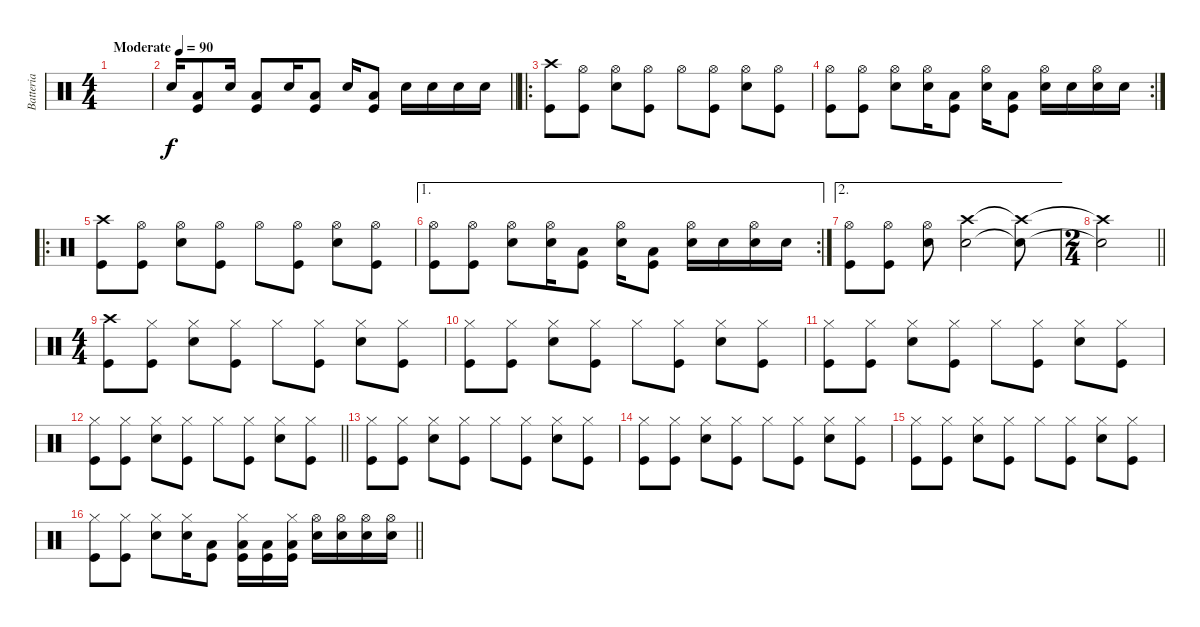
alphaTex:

\track ("Batteria" "Batteria") {instrument percussion}
\staff {score}
\articulation defaults
\ts (4 4)
\tempo (90 "Moderate")
\clef neutral
\ks c
|
\barLineRight lightlight "Snare (hit) 2".16
("Kick (hit)" "Low Floor Tom (hit)").8 "Snare (hit) 2".16 ("Kick (hit)" "Low Floor Tom (hit)").8 "Snare (hit) 2".16 ("Kick (hit)" "Low Floor Tom (hit)").8 "Snare (hit) 2".16 ("Kick (hit)" "Low Floor Tom (hit)").8 "Snare (hit) 2".16 "Snare (hit) 2".16 "Snare (hit) 2".16 "Snare (hit) 2".16 |
\ro
("Kick (hit)" "Crash high (hit)").8 ("Kick (hit)" "Hi-Hat (open)").8 ("Snare (hit) 2" "Hi-Hat (open)").8 ("Kick (hit)" "Hi-Hat (open)").8 "Hi-Hat (open)".8 ("Kick (hit)" "Hi-Hat (open)").8 ("Snare (hit) 2" "Hi-Hat (open)").8 ("Kick (hit)" "Hi-Hat (open)").8 |
\rc 2
("Kick (hit)" "Hi-Hat (open)").8 ("Kick (hit)" "Hi-Hat (open)").8 ("Snare (hit) 2" "Hi-Hat (open)").8 ("Snare (hit) 2" "Hi-Hat (open)").16 ("Kick (hit)" "Low Floor Tom (hit)").8 ("Snare (hit) 2" "Hi-Hat (open)").16 ("Kick (hit)" "Low Floor Tom (hit)").8 ("Snare (hit) 2" "Hi-Hat (open)").16 "Snare (hit) 2".16 ("Snare (hit) 2" "Hi-Hat (open)").16 "Snare (hit) 2".16 |
\ro
("Kick (hit)" "Crash high (hit)").8 ("Kick (hit)" "Hi-Hat (open)").8 ("Snare (hit) 2" "Hi-Hat (open)").8 ("Kick (hit)" "Hi-Hat (open)").8 "Hi-Hat (open)".8 ("Kick (hit)" "Hi-Hat (open)").8 ("Snare (hit) 2" "Hi-Hat (open)").8 ("Kick (hit)" "Hi-Hat (open)").8 |
\ae 1
\rc 2
("Kick (hit)" "Hi-Hat (open)").8 ("Kick (hit)" "Hi-Hat (open)").8 ("Snare (hit) 2" "Hi-Hat (open)").8 ("Snare (hit) 2" "Hi-Hat (open)").16 ("Kick (hit)" "Low Floor Tom (hit)").8 ("Snare (hit) 2" "Hi-Hat (open)").16 ("Kick (hit)" "Low Floor Tom (hit)").8 ("Snare (hit) 2" "Hi-Hat (open)").16 "Snare (hit) 2".16 ("Snare (hit) 2" "Hi-Hat (open)").16 "Snare (hit) 2".16 |
\ae 2
("Kick (hit)" "Hi-Hat (open)").8 ("Kick (hit)" "Hi-Hat (open)").8 ("Snare (hit) 2" "Hi-Hat (open)").8 ("Snare (hit) 2" "Crash high (hit)").2 ("Snare (hit) 2"{t} "Crash high (hit)"{t}).8 |
\ts (2 4)
\barLineRight lightlight
("Snare (hit) 2"{t} "Crash high (hit)"{t}).2 |
\ts (4 4)
("Kick (hit)" "Crash high (hit)").8 ("Kick (hit)" "Hi-Hat (closed)").8 ("Snare (hit) 2" "Hi-Hat (closed)").8 ("Kick (hit)" "Hi-Hat (closed)").8 "Hi-Hat (closed)".8 ("Kick (hit)" "Hi-Hat (closed)").8 ("Snare (hit) 2" "Hi-Hat (closed)").8 ("Kick (hit)" "Hi-Hat (closed)").8 |
("Kick (hit)" "Hi-Hat (closed)").8 ("Kick (hit)" "Hi-Hat (closed)").8 ("Snare (hit) 2" "Hi-Hat (closed)").8 ("Kick (hit)" "Hi-Hat (closed)").8 "Hi-Hat (closed)".8 ("Kick (hit)" "Hi-Hat (closed)").8 ("Snare (hit) 2" "Hi-Hat (closed)").8 ("Kick (hit)" "Hi-Hat (closed)").8 |
("Kick (hit)" "Hi-Hat (closed)").8 ("Kick (hit)" "Hi-Hat (closed)").8 ("Snare (hit) 2" "Hi-Hat (closed)").8 ("Kick (hit)" "Hi-Hat (closed)").8 "Hi-Hat (closed)".8 ("Kick (hit)" "Hi-Hat (closed)").8 ("Snare (hit) 2" "Hi-Hat (closed)").8 ("Kick (hit)" "Hi-Hat (closed)").8 |
\barLineRight lightlight
("Kick (hit)" "Hi-Hat (closed)").8 ("Kick (hit)" "Hi-Hat (closed)").8 ("Snare (hit) 2" "Hi-Hat (closed)").8 ("Kick (hit)" "Hi-Hat (closed)").8 "Hi-Hat (closed)".8 ("Kick (hit)" "Hi-Hat (closed)").8 ("Snare (hit) 2" "Hi-Hat (closed)").8 ("Kick (hit)" "Hi-Hat (closed)").8 |
("Kick (hit)" "Hi-Hat (closed)").8 ("Kick (hit)" "Hi-Hat (closed)").8 ("Snare (hit) 2" "Hi-Hat (closed)").8 ("Kick (hit)" "Hi-Hat (closed)").8 "Hi-Hat (closed)".8 ("Kick (hit)" "Hi-Hat (closed)").8 ("Snare (hit) 2" "Hi-Hat (closed)").8 ("Kick (hit)" "Hi-Hat (closed)").8 |
("Kick (hit)" "Hi-Hat (closed)").8 ("Kick (hit)" "Hi-Hat (closed)").8 ("Snare (hit) 2" "Hi-Hat (closed)").8 ("Kick (hit)" "Hi-Hat (closed)").8 "Hi-Hat (closed)".8 ("Kick (hit)" "Hi-Hat (closed)").8 ("Snare (hit) 2" "Hi-Hat (closed)").8 ("Kick (hit)" "Hi-Hat (closed)").8 |
("Kick (hit)" "Hi-Hat (closed)").8 ("Kick (hit)" "Hi-Hat (closed)").8 ("Snare (hit) 2" "Hi-Hat (closed)").8 ("Kick (hit)" "Hi-Hat (closed)").8 "Hi-Hat (closed)".8 ("Kick (hit)" "Hi-Hat (closed)").8 ("Snare (hit) 2" "Hi-Hat (closed)").8 ("Kick (hit)" "Hi-Hat (closed)").8 |
\barLineRight lightlight
("Kick (hit)" "Hi-Hat (closed)").8 ("Kick (hit)" "Hi-Hat (closed)").8 ("Snare (hit) 2" "Hi-Hat (closed)").8 ("Snare (hit) 2" "Hi-Hat (closed)").16 ("Kick (hit)" "Low Floor Tom (hit)").8 ("Kick (hit)" "Low Floor Tom (hit)" "Hi-Hat (closed)").16 ("Kick (hit)" "Low Floor Tom (hit)").16 ("Kick (hit)" "Low Floor Tom (hit)" "Hi-Hat (closed)").16 ("Snare (hit) 2" "Hi-Hat (open)").16 ("Snare (hit) 2" "Hi-Hat (open)").16 ("Snare (hit) 2" "Hi-Hat (open)").16 ("Snare (hit) 2" "Hi-Hat (open)").16
